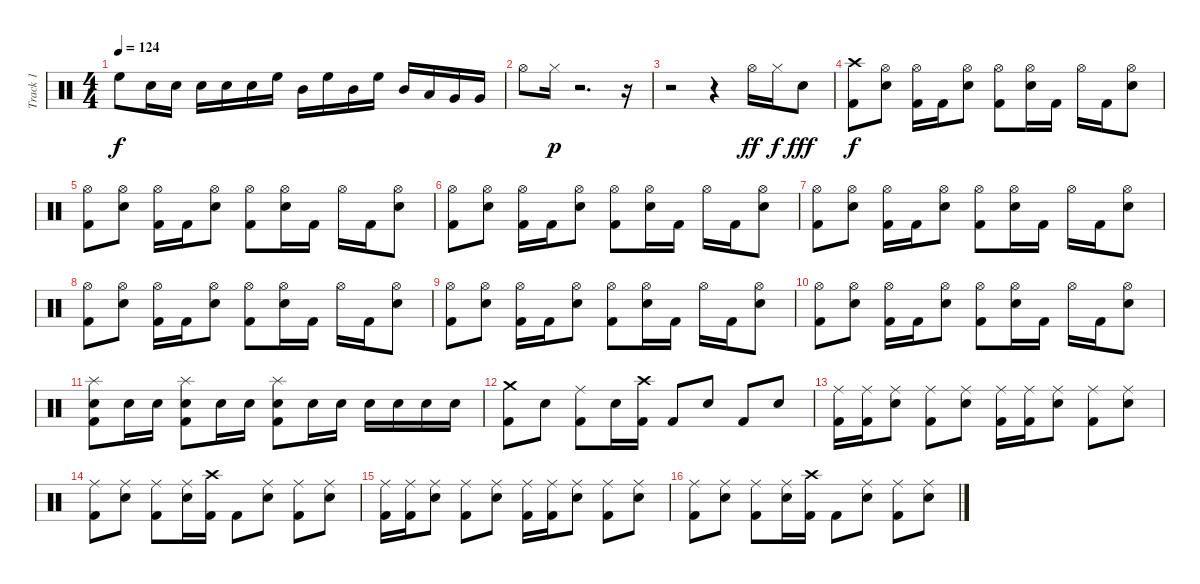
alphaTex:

\track ("Track 1" "Track 1") {instrument percussion}
\staff {score}
\articulation defaults
\ts (4 4)
\tempo 124
\clef neutral
\ks c "High Floor Tom (hit)".8{dy f} "Electric Snare (hit)".16 "Electric Snare (hit)".16 "Electric Snare (hit)".16 "Electric Snare (hit)".16 "Electric Snare (hit)".16 "High Floor Tom (hit)".16 "Mid Tom (hit)".16 "High Floor Tom (hit)".16 "Mid Tom (hit)".16 "High Floor Tom (hit)".16 "Mid Tom (hit)".16 "Low Tom (hit)".16 "Very Low Tom (hit)".16 "Very Low Tom (hit)".16
|
"Hi-Hat (open)".8 "Hi-Hat (closed)".16{dy p} r.2{d} r.16 |
r.2 r.4 "Hi-Hat (open)".16{dy ff} "Hi-Hat (closed)".16{dy f} "Electric Snare (hit)".8{dy fff} |
("Crash high (hit)" "Kick (hit) 2").8{dy f} ("Hi-Hat (open)" "Electric Snare (hit)").8 ("Hi-Hat (open)" "Kick (hit) 2").16 "Kick (hit) 2".16 ("Hi-Hat (open)" "Electric Snare (hit)").8 ("Hi-Hat (open)" "Kick (hit) 2").8 ("Hi-Hat (open)" "Electric Snare (hit)").16 "Kick (hit) 2".16 "Hi-Hat (open)".16 "Kick (hit) 2".16 ("Hi-Hat (open)" "Electric Snare (hit)").8 |
("Hi-Hat (open)" "Kick (hit) 2").8 ("Hi-Hat (open)" "Electric Snare (hit)").8 ("Hi-Hat (open)" "Kick (hit) 2").16 "Kick (hit) 2".16 ("Hi-Hat (open)" "Electric Snare (hit)").8 ("Hi-Hat (open)" "Kick (hit) 2").8 ("Hi-Hat (open)" "Electric Snare (hit)").16 "Kick (hit) 2".16 "Hi-Hat (open)".16 "Kick (hit) 2".16 ("Hi-Hat (open)" "Electric Snare (hit)").8 |
("Hi-Hat (open)" "Kick (hit) 2").8 ("Hi-Hat (open)" "Electric Snare (hit)").8 ("Hi-Hat (open)" "Kick (hit) 2").16 "Kick (hit) 2".16 ("Hi-Hat (open)" "Electric Snare (hit)").8 ("Hi-Hat (open)" "Kick (hit) 2").8 ("Hi-Hat (open)" "Electric Snare (hit)").16 "Kick (hit) 2".16 "Hi-Hat (open)".16 "Kick (hit) 2".16 ("Hi-Hat (open)" "Electric Snare (hit)").8 |
("Hi-Hat (open)" "Kick (hit) 2").8 ("Hi-Hat (open)" "Electric Snare (hit)").8 ("Hi-Hat (open)" "Kick (hit) 2").16 "Kick (hit) 2".16 ("Hi-Hat (open)" "Electric Snare (hit)").8 ("Hi-Hat (open)" "Kick (hit) 2").8 ("Hi-Hat (open)" "Electric Snare (hit)").16 "Kick (hit) 2".16 "Hi-Hat (open)".16 "Kick (hit) 2".16 ("Hi-Hat (open)" "Electric Snare (hit)").8 |
("Hi-Hat (open)" "Kick (hit) 2").8 ("Hi-Hat (open)" "Electric Snare (hit)").8 ("Hi-Hat (open)" "Kick (hit) 2").16 "Kick (hit) 2".16 ("Hi-Hat (open)" "Electric Snare (hit)").8 ("Hi-Hat (open)" "Kick (hit) 2").8 ("Hi-Hat (open)" "Electric Snare (hit)").16 "Kick (hit) 2".16 "Hi-Hat (open)".16 "Kick (hit) 2".16 ("Hi-Hat (open)" "Electric Snare (hit)").8 |
("Hi-Hat (open)" "Kick (hit) 2").8 ("Hi-Hat (open)" "Electric Snare (hit)").8 ("Hi-Hat (open)" "Kick (hit) 2").16 "Kick (hit) 2".16 ("Hi-Hat (open)" "Electric Snare (hit)").8 ("Hi-Hat (open)" "Kick (hit) 2").8 ("Hi-Hat (open)" "Electric Snare (hit)").16 "Kick (hit) 2".16 "Hi-Hat (open)".16 "Kick (hit) 2".16 ("Hi-Hat (open)" "Electric Snare (hit)").8 |
("Hi-Hat (open)" "Kick (hit) 2").8 ("Hi-Hat (open)" "Electric Snare (hit)").8 ("Hi-Hat (open)" "Kick (hit) 2").16 "Kick (hit) 2".16 ("Hi-Hat (open)" "Electric Snare (hit)").8 ("Hi-Hat (open)" "Kick (hit) 2").8 ("Hi-Hat (open)" "Electric Snare (hit)").16 "Kick (hit) 2".16 "Hi-Hat (open)".16 "Kick (hit) 2".16 ("Hi-Hat (open)" "Electric Snare (hit)").8 |
("Splash (hit)" "Electric Snare (hit)" "Kick (hit) 2").8 "Electric Snare (hit)".16 "Electric Snare (hit)".16 ("Splash (hit)" "Electric Snare (hit)" "Kick (hit) 2").8 "Electric Snare (hit)".16 "Electric Snare (hit)".16 ("Splash (hit)" "Electric Snare (hit)" "Kick (hit) 2").8 "Electric Snare (hit)".16 "Electric Snare (hit)".16 "Electric Snare (hit)".16 "Electric Snare (hit)".16 "Electric Snare (hit)".16 "Electric Snare (hit)".16 |
("Crash medium (hit)" "Kick (hit) 2").8 "Electric Snare (hit)".8 ("Ride (middle)" "Kick (hit) 2").8 "Electric Snare (hit)".16 ("Crash high (hit)" "Kick (hit) 2").16 "Kick (hit) 2".8 "Electric Snare (hit)".8 "Kick (hit) 2".8 "Electric Snare (hit)".8 |
("Ride (middle)" "Kick (hit) 2").16 ("Ride (middle)" "Kick (hit) 2").16 ("Ride (middle)" "Electric Snare (hit)").8 ("Ride (middle)" "Kick (hit) 2").8 ("Ride (middle)" "Electric Snare (hit)").8 ("Ride (middle)" "Kick (hit) 2").16 ("Ride (middle)" "Kick (hit) 2").16 ("Ride (middle)" "Electric Snare (hit)").8 ("Ride (middle)" "Kick (hit) 2").8 ("Ride (middle)" "Electric Snare (hit)").8 |
("Ride (middle)" "Kick (hit) 2").8 ("Ride (middle)" "Electric Snare (hit)").8 ("Ride (middle)" "Kick (hit) 2").8 ("Ride (middle)" "Electric Snare (hit)").16 ("Crash high (hit)" "Kick (hit) 2").16 "Kick (hit) 2".8 ("Ride (middle)" "Electric Snare (hit)").8 ("Ride (middle)" "Kick (hit) 2").8 ("Ride (middle)" "Electric Snare (hit)").8 |
("Ride (middle)" "Kick (hit) 2").16 ("Ride (middle)" "Kick (hit) 2").16 ("Ride (middle)" "Electric Snare (hit)").8 ("Ride (middle)" "Kick (hit) 2").8 ("Ride (middle)" "Electric Snare (hit)").8 ("Ride (middle)" "Kick (hit) 2").16 ("Ride (middle)" "Kick (hit) 2").16 ("Ride (middle)" "Electric Snare (hit)").8 ("Ride (middle)" "Kick (hit) 2").8 ("Ride (middle)" "Electric Snare (hit)").8 |
("Ride (middle)" "Kick (hit) 2").8 ("Ride (middle)" "Electric Snare (hit)").8 ("Ride (middle)" "Kick (hit) 2").8 ("Ride (middle)" "Electric Snare (hit)").16 ("Crash high (hit)" "Kick (hit) 2").16 "Kick (hit) 2".8 ("Ride (middle)" "Electric Snare (hit)").8 ("Ride (middle)" "Kick (hit) 2").8 ("Ride (middle)" "Electric Snare (hit)").8
